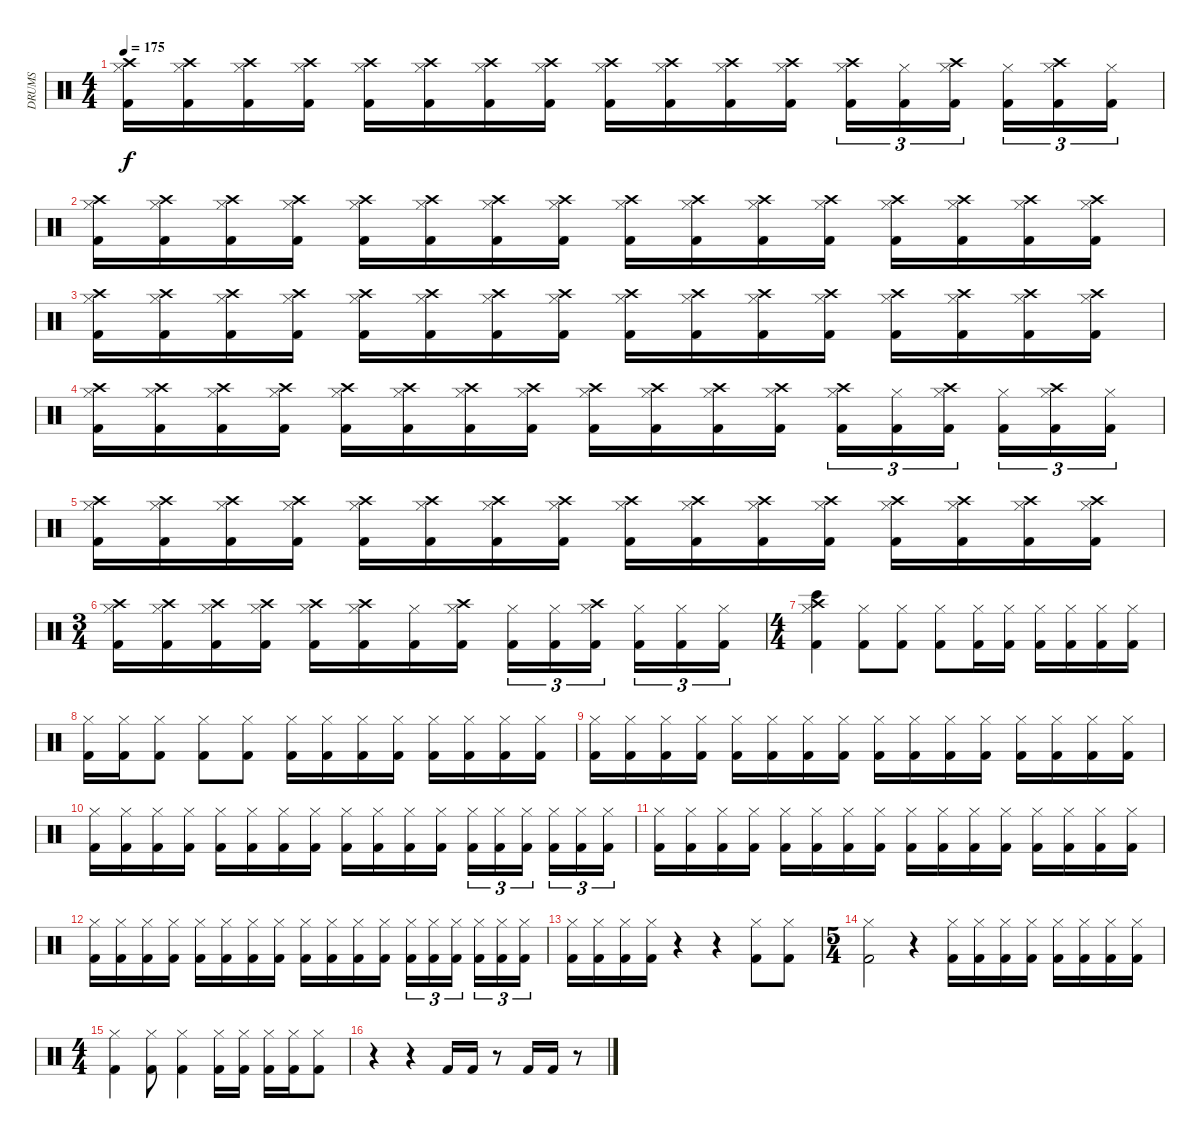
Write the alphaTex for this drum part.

\track ("DRUMS" "DRUMS") {instrument percussion}
\staff {score}
\articulation defaults
\ts (4 4)
\tempo 175
\clef neutral
\ks c
("Crash high (hit)" "Kick (hit) 2" "Hi-Hat (closed)").16{dy f} ("Crash high (hit)" "Kick (hit) 2" "Hi-Hat (closed)").16 ("Crash high (hit)" "Kick (hit) 2" "Hi-Hat (closed)").16 ("Crash high (hit)" "Kick (hit) 2" "Hi-Hat (closed)").16 ("Crash high (hit)" "Kick (hit) 2" "Hi-Hat (closed)").16 ("Crash high (hit)" "Kick (hit) 2" "Hi-Hat (closed)").16 ("Crash high (hit)" "Kick (hit) 2" "Hi-Hat (closed)").16 ("Crash high (hit)" "Kick (hit) 2" "Hi-Hat (closed)").16 ("Crash high (hit)" "Kick (hit) 2" "Hi-Hat (closed)").16 ("Crash high (hit)" "Kick (hit) 2" "Hi-Hat (closed)").16 ("Crash high (hit)" "Kick (hit) 2" "Hi-Hat (closed)").16 ("Crash high (hit)" "Kick (hit) 2" "Hi-Hat (closed)").16 ("Crash high (hit)" "Kick (hit) 2" "Hi-Hat (closed)").16{tu (3 2)} ("Kick (hit) 2" "Hi-Hat (closed)").16{tu (3 2)} ("Crash high (hit)" "Kick (hit) 2" "Hi-Hat (closed)").16{tu (3 2)} ("Kick (hit) 2" "Hi-Hat (closed)").16{tu (3 2)} ("Crash high (hit)" "Kick (hit) 2" "Hi-Hat (closed)").16{tu (3 2)} ("Kick (hit) 2" "Hi-Hat (closed)").16{tu (3 2)} |
("Crash high (hit)" "Kick (hit) 2" "Hi-Hat (closed)").16 ("Crash high (hit)" "Kick (hit) 2" "Hi-Hat (closed)").16 ("Crash high (hit)" "Kick (hit) 2" "Hi-Hat (closed)").16 ("Crash high (hit)" "Kick (hit) 2" "Hi-Hat (closed)").16 ("Crash high (hit)" "Kick (hit) 2" "Hi-Hat (closed)").16 ("Crash high (hit)" "Kick (hit) 2" "Hi-Hat (closed)").16 ("Crash high (hit)" "Kick (hit) 2" "Hi-Hat (closed)").16 ("Crash high (hit)" "Kick (hit) 2" "Hi-Hat (closed)").16 ("Crash high (hit)" "Kick (hit) 2" "Hi-Hat (closed)").16 ("Crash high (hit)" "Kick (hit) 2" "Hi-Hat (closed)").16 ("Crash high (hit)" "Kick (hit) 2" "Hi-Hat (closed)").16 ("Crash high (hit)" "Kick (hit) 2" "Hi-Hat (closed)").16 ("Crash high (hit)" "Kick (hit) 2" "Hi-Hat (closed)").16 ("Crash high (hit)" "Kick (hit) 2" "Hi-Hat (closed)").16 ("Crash high (hit)" "Kick (hit) 2" "Hi-Hat (closed)").16 ("Crash high (hit)" "Kick (hit) 2" "Hi-Hat (closed)").16 |
("Crash high (hit)" "Kick (hit) 2" "Hi-Hat (closed)").16 ("Crash high (hit)" "Kick (hit) 2" "Hi-Hat (closed)").16 ("Crash high (hit)" "Kick (hit) 2" "Hi-Hat (closed)").16 ("Crash high (hit)" "Kick (hit) 2" "Hi-Hat (closed)").16 ("Crash high (hit)" "Kick (hit) 2" "Hi-Hat (closed)").16 ("Crash high (hit)" "Kick (hit) 2" "Hi-Hat (closed)").16 ("Crash high (hit)" "Kick (hit) 2" "Hi-Hat (closed)").16 ("Crash high (hit)" "Kick (hit) 2" "Hi-Hat (closed)").16 ("Crash high (hit)" "Kick (hit) 2" "Hi-Hat (closed)").16 ("Crash high (hit)" "Kick (hit) 2" "Hi-Hat (closed)").16 ("Crash high (hit)" "Kick (hit) 2" "Hi-Hat (closed)").16 ("Crash high (hit)" "Kick (hit) 2" "Hi-Hat (closed)").16 ("Crash high (hit)" "Kick (hit) 2" "Hi-Hat (closed)").16 ("Crash high (hit)" "Kick (hit) 2" "Hi-Hat (closed)").16 ("Crash high (hit)" "Kick (hit) 2" "Hi-Hat (closed)").16 ("Crash high (hit)" "Kick (hit) 2" "Hi-Hat (closed)").16 |
("Crash high (hit)" "Kick (hit) 2" "Hi-Hat (closed)").16 ("Crash high (hit)" "Kick (hit) 2" "Hi-Hat (closed)").16 ("Crash high (hit)" "Kick (hit) 2" "Hi-Hat (closed)").16 ("Crash high (hit)" "Kick (hit) 2" "Hi-Hat (closed)").16 ("Crash high (hit)" "Kick (hit) 2" "Hi-Hat (closed)").16 ("Crash high (hit)" "Kick (hit) 2" "Hi-Hat (closed)").16 ("Crash high (hit)" "Kick (hit) 2" "Hi-Hat (closed)").16 ("Crash high (hit)" "Kick (hit) 2" "Hi-Hat (closed)").16 ("Crash high (hit)" "Kick (hit) 2" "Hi-Hat (closed)").16 ("Crash high (hit)" "Kick (hit) 2" "Hi-Hat (closed)").16 ("Crash high (hit)" "Kick (hit) 2" "Hi-Hat (closed)").16 ("Crash high (hit)" "Kick (hit) 2" "Hi-Hat (closed)").16 ("Crash high (hit)" "Kick (hit) 2" "Hi-Hat (closed)").16{tu (3 2)} ("Kick (hit) 2" "Hi-Hat (closed)").16{tu (3 2)} ("Crash high (hit)" "Kick (hit) 2" "Hi-Hat (closed)").16{tu (3 2)} ("Kick (hit) 2" "Hi-Hat (closed)").16{tu (3 2)} ("Crash high (hit)" "Kick (hit) 2" "Hi-Hat (closed)").16{tu (3 2)} ("Kick (hit) 2" "Hi-Hat (closed)").16{tu (3 2)} |
("Crash high (hit)" "Kick (hit) 2" "Hi-Hat (closed)").16 ("Crash high (hit)" "Kick (hit) 2" "Hi-Hat (closed)").16 ("Crash high (hit)" "Kick (hit) 2" "Hi-Hat (closed)").16 ("Crash high (hit)" "Kick (hit) 2" "Hi-Hat (closed)").16 ("Crash high (hit)" "Kick (hit) 2" "Hi-Hat (closed)").16 ("Crash high (hit)" "Kick (hit) 2" "Hi-Hat (closed)").16 ("Crash high (hit)" "Kick (hit) 2" "Hi-Hat (closed)").16 ("Crash high (hit)" "Kick (hit) 2" "Hi-Hat (closed)").16 ("Crash high (hit)" "Kick (hit) 2" "Hi-Hat (closed)").16 ("Crash high (hit)" "Kick (hit) 2" "Hi-Hat (closed)").16 ("Crash high (hit)" "Kick (hit) 2" "Hi-Hat (closed)").16 ("Crash high (hit)" "Kick (hit) 2" "Hi-Hat (closed)").16 ("Crash high (hit)" "Kick (hit) 2" "Hi-Hat (closed)").16 ("Crash high (hit)" "Kick (hit) 2" "Hi-Hat (closed)").16 ("Crash high (hit)" "Kick (hit) 2" "Hi-Hat (closed)").16 ("Crash high (hit)" "Kick (hit) 2" "Hi-Hat (closed)").16 |
\ts (3 4)
("Crash high (hit)" "Kick (hit) 2" "Hi-Hat (closed)").16 ("Crash high (hit)" "Kick (hit) 2" "Hi-Hat (closed)").16 ("Crash high (hit)" "Kick (hit) 2" "Hi-Hat (closed)").16 ("Crash high (hit)" "Kick (hit) 2" "Hi-Hat (closed)").16 ("Crash high (hit)" "Kick (hit) 2" "Hi-Hat (closed)").16 ("Crash high (hit)" "Kick (hit) 2" "Hi-Hat (closed)").16 ("Kick (hit) 2" "Hi-Hat (closed)").16 ("Crash high (hit)" "Kick (hit) 2" "Hi-Hat (closed)").16 ("Kick (hit) 2" "Hi-Hat (closed)").16{tu (3 2)} ("Kick (hit) 2" "Hi-Hat (closed)").16{tu (3 2)} ("Crash high (hit)" "Kick (hit) 2" "Hi-Hat (closed)").16{tu (3 2)} ("Kick (hit) 2" "Hi-Hat (closed)").16{tu (3 2)} ("Kick (hit) 2" "Hi-Hat (closed)").16{tu (3 2)} ("Kick (hit) 2" "Hi-Hat (closed)").16{tu (3 2)} |
\ts (4 4)
("Crash high (hit)" "Bongo High (hit)" "Hi-Hat (closed)" "Kick (hit) 2").4 ("Kick (hit) 2" "Hi-Hat (closed)").8 ("Kick (hit) 2" "Hi-Hat (closed)").8 ("Kick (hit) 2" "Hi-Hat (closed)").8 ("Kick (hit) 2" "Hi-Hat (closed)").16 ("Kick (hit) 2" "Hi-Hat (closed)").16 ("Kick (hit) 2" "Hi-Hat (closed)").16 ("Kick (hit) 2" "Hi-Hat (closed)").16 ("Kick (hit) 2" "Hi-Hat (closed)").16 ("Kick (hit) 2" "Hi-Hat (closed)").16 |
("Kick (hit) 2" "Hi-Hat (closed)").16 ("Kick (hit) 2" "Hi-Hat (closed)").16 ("Kick (hit) 2" "Hi-Hat (closed)").8 ("Kick (hit) 2" "Hi-Hat (closed)").8 ("Kick (hit) 2" "Hi-Hat (closed)").8 ("Kick (hit) 2" "Hi-Hat (closed)").16 ("Kick (hit) 2" "Hi-Hat (closed)").16 ("Kick (hit) 2" "Hi-Hat (closed)").16 ("Kick (hit) 2" "Hi-Hat (closed)").16 ("Kick (hit) 2" "Hi-Hat (closed)").16 ("Kick (hit) 2" "Hi-Hat (closed)").16 ("Kick (hit) 2" "Hi-Hat (closed)").16 ("Kick (hit) 2" "Hi-Hat (closed)").16 |
("Kick (hit) 2" "Hi-Hat (closed)").16 ("Kick (hit) 2" "Hi-Hat (closed)").16 ("Kick (hit) 2" "Hi-Hat (closed)").16 ("Kick (hit) 2" "Hi-Hat (closed)").16 ("Kick (hit) 2" "Hi-Hat (closed)").16 ("Kick (hit) 2" "Hi-Hat (closed)").16 ("Kick (hit) 2" "Hi-Hat (closed)").16 ("Kick (hit) 2" "Hi-Hat (closed)").16 ("Kick (hit) 2" "Hi-Hat (closed)").16 ("Kick (hit) 2" "Hi-Hat (closed)").16 ("Kick (hit) 2" "Hi-Hat (closed)").16 ("Kick (hit) 2" "Hi-Hat (closed)").16 ("Kick (hit) 2" "Hi-Hat (closed)").16 ("Kick (hit) 2" "Hi-Hat (closed)").16 ("Kick (hit) 2" "Hi-Hat (closed)").16 ("Kick (hit) 2" "Hi-Hat (closed)").16 |
("Kick (hit) 2" "Hi-Hat (closed)").16 ("Kick (hit) 2" "Hi-Hat (closed)").16 ("Kick (hit) 2" "Hi-Hat (closed)").16 ("Kick (hit) 2" "Hi-Hat (closed)").16 ("Kick (hit) 2" "Hi-Hat (closed)").16 ("Kick (hit) 2" "Hi-Hat (closed)").16 ("Kick (hit) 2" "Hi-Hat (closed)").16 ("Kick (hit) 2" "Hi-Hat (closed)").16 ("Kick (hit) 2" "Hi-Hat (closed)").16 ("Kick (hit) 2" "Hi-Hat (closed)").16 ("Kick (hit) 2" "Hi-Hat (closed)").16 ("Kick (hit) 2" "Hi-Hat (closed)").16 ("Kick (hit) 2" "Hi-Hat (closed)").16{tu (3 2)} ("Kick (hit) 2" "Hi-Hat (closed)").16{tu (3 2)} ("Kick (hit) 2" "Hi-Hat (closed)").16{tu (3 2)} ("Kick (hit) 2" "Hi-Hat (closed)").16{tu (3 2)} ("Kick (hit) 2" "Hi-Hat (closed)").16{tu (3 2)} ("Kick (hit) 2" "Hi-Hat (closed)").16{tu (3 2)} |
("Kick (hit) 2" "Hi-Hat (closed)").16 ("Kick (hit) 2" "Hi-Hat (closed)").16 ("Kick (hit) 2" "Hi-Hat (closed)").16 ("Kick (hit) 2" "Hi-Hat (closed)").16 ("Kick (hit) 2" "Hi-Hat (closed)").16 ("Kick (hit) 2" "Hi-Hat (closed)").16 ("Kick (hit) 2" "Hi-Hat (closed)").16 ("Kick (hit) 2" "Hi-Hat (closed)").16 ("Kick (hit) 2" "Hi-Hat (closed)").16 ("Kick (hit) 2" "Hi-Hat (closed)").16 ("Kick (hit) 2" "Hi-Hat (closed)").16 ("Kick (hit) 2" "Hi-Hat (closed)").16 ("Kick (hit) 2" "Hi-Hat (closed)").16 ("Kick (hit) 2" "Hi-Hat (closed)").16 ("Kick (hit) 2" "Hi-Hat (closed)").16 ("Kick (hit) 2" "Hi-Hat (closed)").16 |
("Kick (hit) 2" "Hi-Hat (closed)").16 ("Kick (hit) 2" "Hi-Hat (closed)").16 ("Kick (hit) 2" "Hi-Hat (closed)").16 ("Kick (hit) 2" "Hi-Hat (closed)").16 ("Kick (hit) 2" "Hi-Hat (closed)").16 ("Kick (hit) 2" "Hi-Hat (closed)").16 ("Kick (hit) 2" "Hi-Hat (closed)").16 ("Kick (hit) 2" "Hi-Hat (closed)").16 ("Kick (hit) 2" "Hi-Hat (closed)").16 ("Kick (hit) 2" "Hi-Hat (closed)").16 ("Kick (hit) 2" "Hi-Hat (closed)").16 ("Kick (hit) 2" "Hi-Hat (closed)").16 ("Kick (hit) 2" "Hi-Hat (closed)").16{tu (3 2)} ("Kick (hit) 2" "Hi-Hat (closed)").16{tu (3 2)} ("Kick (hit) 2" "Hi-Hat (closed)").16{tu (3 2)} ("Kick (hit) 2" "Hi-Hat (closed)").16{tu (3 2)} ("Kick (hit) 2" "Hi-Hat (closed)").16{tu (3 2)} ("Kick (hit) 2" "Hi-Hat (closed)").16{tu (3 2)} |
("Hi-Hat (closed)" "Kick (hit) 2").16 ("Hi-Hat (closed)" "Kick (hit) 2").16 ("Hi-Hat (closed)" "Kick (hit) 2").16 ("Hi-Hat (closed)" "Kick (hit) 2").16 r.4 r.4 ("Hi-Hat (closed)" "Kick (hit) 2").8 ("Hi-Hat (closed)" "Kick (hit) 2").8 |
\ts (5 4)
("Hi-Hat (closed)" "Kick (hit) 2").2 r.4 ("Kick (hit) 2" "Hi-Hat (closed)").16 ("Kick (hit) 2" "Hi-Hat (closed)").16 ("Kick (hit) 2" "Hi-Hat (closed)").16 ("Kick (hit) 2" "Hi-Hat (closed)").16 ("Kick (hit) 2" "Hi-Hat (closed)").16 ("Kick (hit) 2" "Hi-Hat (closed)").16 ("Kick (hit) 2" "Hi-Hat (closed)").16 ("Kick (hit) 2" "Hi-Hat (closed)").16 |
\ts (4 4)
("Hi-Hat (closed)" "Kick (hit) 2").4 ("Hi-Hat (closed)" "Kick (hit) 2").8 ("Hi-Hat (closed)" "Kick (hit) 2").4 ("Hi-Hat (closed)" "Kick (hit) 2").16 ("Hi-Hat (closed)" "Kick (hit) 2").16 ("Hi-Hat (closed)" "Kick (hit) 2").16 ("Hi-Hat (closed)" "Kick (hit) 2").16 ("Hi-Hat (closed)" "Kick (hit) 2").8 |
r.4 r.4 "Kick (hit) 2".16 "Kick (hit) 2".16 r.8 "Kick (hit) 2".16 "Kick (hit) 2".16 r.8
